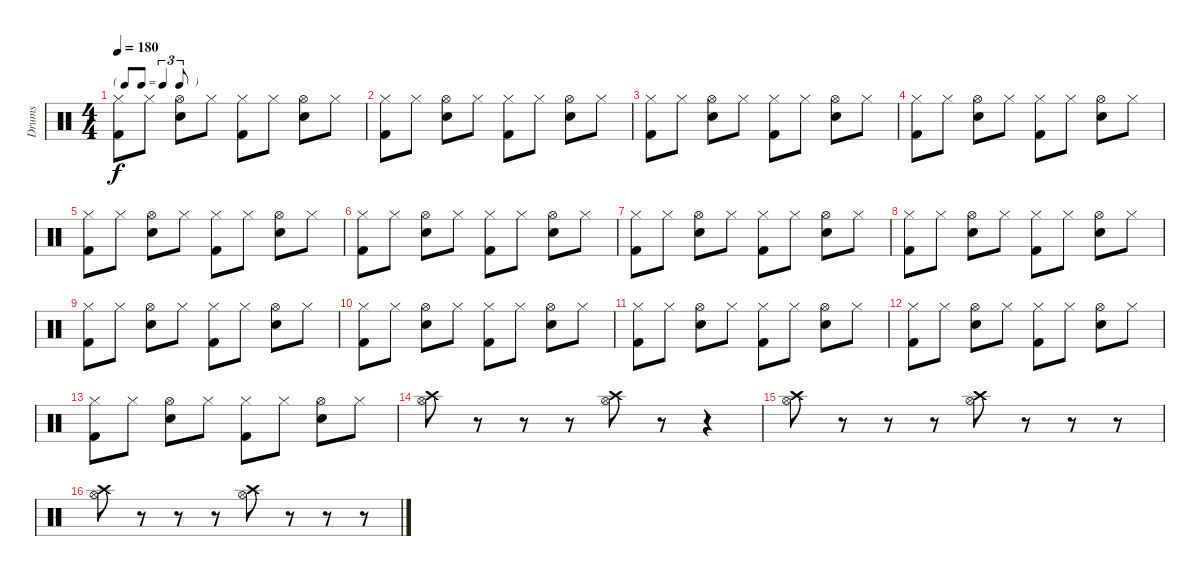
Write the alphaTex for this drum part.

\track ("Drums" "Drums") {instrument percussion}
\staff {score}
\articulation defaults
\ts (4 4)
\tf triplet8th
\tempo 180
\clef neutral
\ks c
("Hi-Hat (closed)" "Kick (hit) 2").8{dy f} "Hi-Hat (closed)".8 ("Hi-Hat (open)" "Snare (hit) 2").8 "Hi-Hat (closed)".8 ("Hi-Hat (closed)" "Kick (hit) 2").8 "Hi-Hat (closed)".8 ("Hi-Hat (open)" "Snare (hit) 2").8 "Hi-Hat (closed)".8 |
("Hi-Hat (closed)" "Kick (hit) 2").8 "Hi-Hat (closed)".8 ("Hi-Hat (open)" "Snare (hit) 2").8 "Hi-Hat (closed)".8 ("Hi-Hat (closed)" "Kick (hit) 2").8 "Hi-Hat (closed)".8 ("Hi-Hat (open)" "Snare (hit) 2").8 "Hi-Hat (closed)".8 |
("Hi-Hat (closed)" "Kick (hit) 2").8 "Hi-Hat (closed)".8 ("Hi-Hat (open)" "Snare (hit) 2").8 "Hi-Hat (closed)".8 ("Hi-Hat (closed)" "Kick (hit) 2").8 "Hi-Hat (closed)".8 ("Hi-Hat (open)" "Snare (hit) 2").8 "Hi-Hat (closed)".8 |
("Hi-Hat (closed)" "Kick (hit) 2").8 "Hi-Hat (closed)".8 ("Hi-Hat (open)" "Snare (hit) 2").8 "Hi-Hat (closed)".8 ("Hi-Hat (closed)" "Kick (hit) 2").8 "Hi-Hat (closed)".8 ("Hi-Hat (open)" "Snare (hit) 2").8 "Hi-Hat (closed)".8 |
("Hi-Hat (closed)" "Kick (hit) 2").8 "Hi-Hat (closed)".8 ("Hi-Hat (open)" "Snare (hit) 2").8 "Hi-Hat (closed)".8 ("Hi-Hat (closed)" "Kick (hit) 2").8 "Hi-Hat (closed)".8 ("Hi-Hat (open)" "Snare (hit) 2").8 "Hi-Hat (closed)".8 |
("Hi-Hat (closed)" "Kick (hit) 2").8 "Hi-Hat (closed)".8 ("Hi-Hat (open)" "Snare (hit) 2").8 "Hi-Hat (closed)".8 ("Hi-Hat (closed)" "Kick (hit) 2").8 "Hi-Hat (closed)".8 ("Hi-Hat (open)" "Snare (hit) 2").8 "Hi-Hat (closed)".8 |
("Hi-Hat (closed)" "Kick (hit) 2").8 "Hi-Hat (closed)".8 ("Hi-Hat (open)" "Snare (hit) 2").8 "Hi-Hat (closed)".8 ("Hi-Hat (closed)" "Kick (hit) 2").8 "Hi-Hat (closed)".8 ("Hi-Hat (open)" "Snare (hit) 2").8 "Hi-Hat (closed)".8 |
("Hi-Hat (closed)" "Kick (hit) 2").8 "Hi-Hat (closed)".8 ("Hi-Hat (open)" "Snare (hit) 2").8 "Hi-Hat (closed)".8 ("Hi-Hat (closed)" "Kick (hit) 2").8 "Hi-Hat (closed)".8 ("Hi-Hat (open)" "Snare (hit) 2").8 "Hi-Hat (closed)".8 |
("Hi-Hat (closed)" "Kick (hit) 2").8 "Hi-Hat (closed)".8 ("Hi-Hat (open)" "Snare (hit) 2").8 "Hi-Hat (closed)".8 ("Hi-Hat (closed)" "Kick (hit) 2").8 "Hi-Hat (closed)".8 ("Hi-Hat (open)" "Snare (hit) 2").8 "Hi-Hat (closed)".8 |
("Hi-Hat (closed)" "Kick (hit) 2").8 "Hi-Hat (closed)".8 ("Hi-Hat (open)" "Snare (hit) 2").8 "Hi-Hat (closed)".8 ("Hi-Hat (closed)" "Kick (hit) 2").8 "Hi-Hat (closed)".8 ("Hi-Hat (open)" "Snare (hit) 2").8 "Hi-Hat (closed)".8 |
("Hi-Hat (closed)" "Kick (hit) 2").8 "Hi-Hat (closed)".8 ("Hi-Hat (open)" "Snare (hit) 2").8 "Hi-Hat (closed)".8 ("Hi-Hat (closed)" "Kick (hit) 2").8 "Hi-Hat (closed)".8 ("Hi-Hat (open)" "Snare (hit) 2").8 "Hi-Hat (closed)".8 |
("Hi-Hat (closed)" "Kick (hit) 2").8 "Hi-Hat (closed)".8 ("Hi-Hat (open)" "Snare (hit) 2").8 "Hi-Hat (closed)".8 ("Hi-Hat (closed)" "Kick (hit) 2").8 "Hi-Hat (closed)".8 ("Hi-Hat (open)" "Snare (hit) 2").8 "Hi-Hat (closed)".8 |
("Hi-Hat (closed)" "Kick (hit) 2").8 "Hi-Hat (closed)".8 ("Hi-Hat (open)" "Snare (hit) 2").8 "Hi-Hat (closed)".8 ("Hi-Hat (closed)" "Kick (hit) 2").8 "Hi-Hat (closed)".8 ("Hi-Hat (open)" "Snare (hit) 2").8 "Hi-Hat (closed)".8 |
("Crash high (hit)" "Hi-Hat (open)").8 r.8 r.8 r.8 ("Crash high (hit)" "Hi-Hat (open)").8 r.8 r.4 |
("Hi-Hat (open)" "Crash high (hit)").8 r.8 r.8 r.8 ("Hi-Hat (open)" "Crash high (hit)").8 r.8 r.8 r.8 |
("Crash high (hit)" "Hi-Hat (open)").8 r.8 r.8 r.8 ("Crash high (hit)" "Hi-Hat (open)").8 r.8 r.8 r.8
